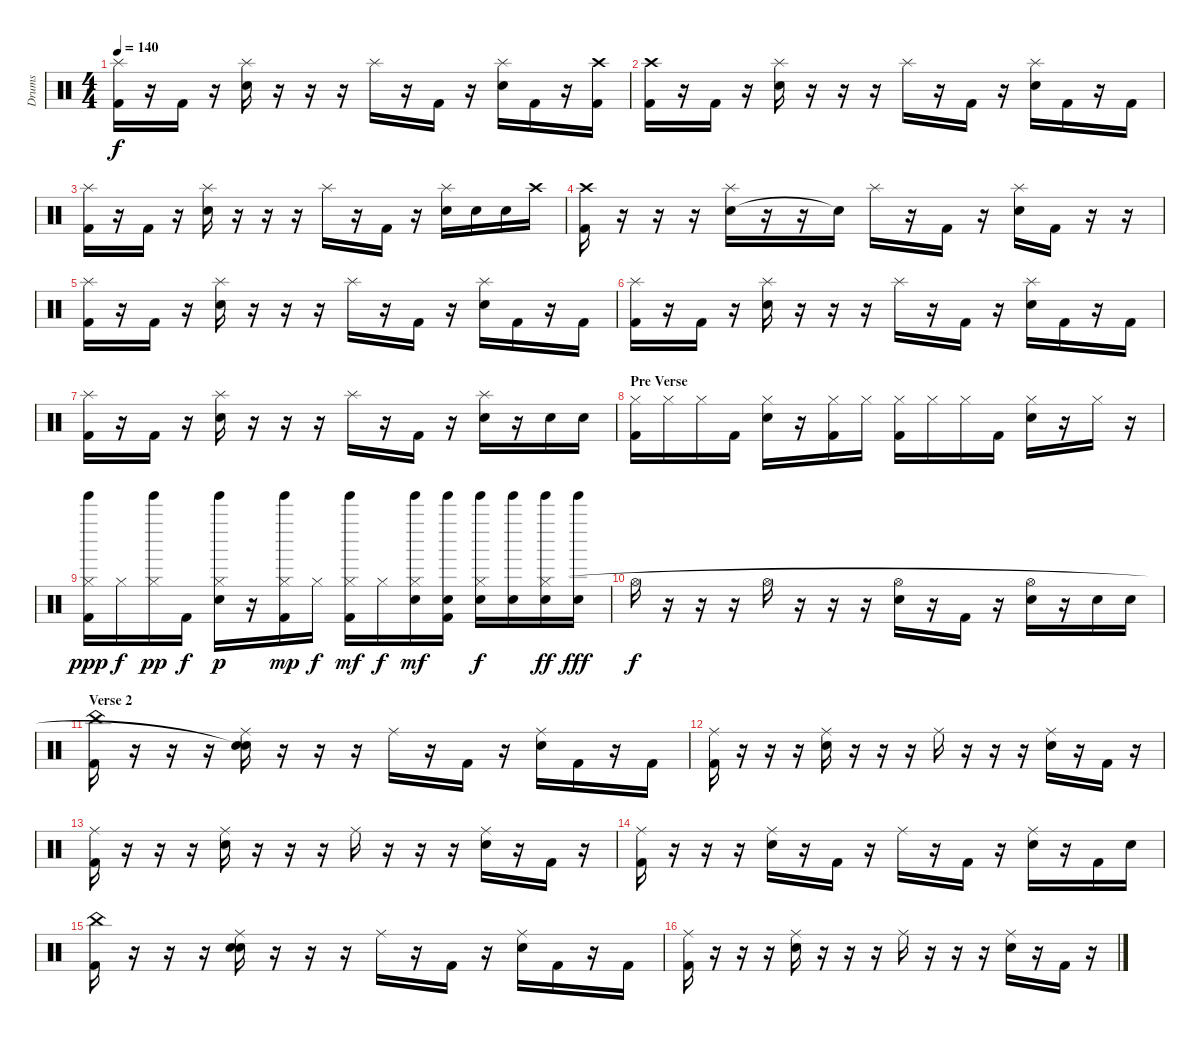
\track ("Drums" "Drums") {instrument percussion}
\staff {score}
\articulation defaults
\ts (4 4)
\tempo 140
\clef neutral
\ks c
("Kick (hit) 2" "Splash (hit)").16{dy f} r.16 "Kick (hit) 2".16 r.16 ("Snare (hit) 2" "Splash (hit)").16 r.16 r.16 r.16 "Splash (hit)".16 r.16 "Kick (hit) 2".16 r.16 ("Snare (hit) 2" "Splash (hit)").16 "Kick (hit) 2".16 r.16 ("Kick (hit) 2" "Crash high (hit)").16 |
("Kick (hit) 2" "Crash high (hit)").16 r.16 "Kick (hit) 2".16 r.16 ("Snare (hit) 2" "Splash (hit)").16 r.16 r.16 r.16 "Splash (hit)".16 r.16 "Kick (hit) 2".16 r.16 ("Snare (hit) 2" "Splash (hit)").16 "Kick (hit) 2".16 r.16 "Kick (hit) 2".16 |
("Kick (hit) 2" "Splash (hit)").16 r.16 "Kick (hit) 2".16 r.16 ("Snare (hit) 2" "Splash (hit)").16 r.16 r.16 r.16 "Splash (hit)".16 r.16 "Kick (hit) 2".16 r.16 ("Snare (hit) 2" "Splash (hit)").16 "Snare (hit) 2".16 "Snare (hit) 2".16 "Crash high (hit)".16 |
("Kick (hit) 2" "Crash high (hit)").16 r.16 r.16 r.16 ("Snare (hit) 2" "Splash (hit)").16 r.16 r.16 "Snare (hit)"{t}.16 "Splash (hit)".16 r.16 "Kick (hit) 2".16 r.16 ("Snare (hit) 2" "Splash (hit)").16 "Kick (hit) 2".16 r.16 r.16 |
("Kick (hit) 2" "Splash (hit)").16 r.16 "Kick (hit) 2".16 r.16 ("Snare (hit) 2" "Splash (hit)").16 r.16 r.16 r.16 "Splash (hit)".16 r.16 "Kick (hit) 2".16 r.16 ("Snare (hit) 2" "Splash (hit)").16 "Kick (hit) 2".16 r.16 "Kick (hit) 2".16 |
("Kick (hit) 2" "Splash (hit)").16 r.16 "Kick (hit) 2".16 r.16 ("Snare (hit) 2" "Splash (hit)").16 r.16 r.16 r.16 "Splash (hit)".16 r.16 "Kick (hit) 2".16 r.16 ("Snare (hit) 2" "Splash (hit)").16 "Kick (hit) 2".16 r.16 "Kick (hit) 2".16 |
("Kick (hit) 2" "Splash (hit)").16 r.16 "Kick (hit) 2".16 r.16 ("Snare (hit) 2" "Splash (hit)").16 r.16 r.16 r.16 "Splash (hit)".16 r.16 "Kick (hit) 2".16 r.16 ("Snare (hit) 2" "Splash (hit)").16 r.16 "Snare (hit) 2".16 "Snare (hit) 2".16 |
\section ("" "Pre Verse")
("Kick (hit) 2" "Hi-Hat (closed)").16{volume 16} "Hi-Hat (closed)".16 "Hi-Hat (closed)".16 "Kick (hit) 2".16 ("Snare (hit) 2" "Hi-Hat (closed)").16 r.16 ("Kick (hit) 2" "Hi-Hat (closed)").16 "Hi-Hat (closed)".16 ("Kick (hit) 2" "Hi-Hat (closed)").16 "Hi-Hat (closed)".16 "Hi-Hat (closed)".16 "Kick (hit) 2".16 ("Snare (hit) 2" "Hi-Hat (closed)").16 r.16 "Hi-Hat (closed)".16 r.16 |
("Kick (hit) 2" "Tinkle Bell (hit)" "Hi-Hat (closed)").16{dy ppp volume 16} "Hi-Hat (closed)".16{dy f} ("Tinkle Bell (hit)" "Hi-Hat (closed)").16{dy pp} "Kick (hit) 2".16{dy f} ("Snare (hit) 2" "Tinkle Bell (hit)" "Hi-Hat (closed)").16{dy p} r.16 ("Kick (hit) 2" "Tinkle Bell (hit)" "Hi-Hat (closed)").16{dy mp} "Hi-Hat (closed)".16{dy f} ("Kick (hit) 2" "Tinkle Bell (hit)" "Hi-Hat (closed)").16{dy mf} "Hi-Hat (closed)".16{dy f} ("Snare (hit) 2" "Tinkle Bell (hit)" "Hi-Hat (closed)").16{dy mf} ("Kick (hit) 2" "Snare (hit) 2" "Tinkle Bell (hit)").16 ("Snare (hit) 2" "Tinkle Bell (hit)" "Hi-Hat (closed)").16{dy f} ("Snare (hit) 2" "Tinkle Bell (hit)").16 ("Snare (hit) 2" "Tinkle Bell (hit)" "Hi-Hat (closed)").16{dy ff} ("Snare (hit) 2" "Tinkle Bell (hit)").16{dy fff} |
"Hi-Hat (open)".16{dy f volume 12} r.16 r.16 r.16 "Hi-Hat (open)".16 r.16 r.16 r.16 ("Snare (hit) 2" "Hi-Hat (open)").16 r.16 "Kick (hit) 2".16 r.16 ("Snare (hit) 2" "Hi-Hat (open)").16 r.16 "Snare (hit) 2".16 "Snare (hit) 2".16 |
\section ("" "Verse 2")
("Kick (hit) 2" "China (hit)").16 r.16 r.16 r.16 ("Snare (hit) 2" "Ride (middle)" "Snare (hit)"{t}).16 r.16 r.16 r.16 "Ride (middle)".16 r.16 "Kick (hit) 2".16 r.16 ("Snare (hit) 2" "Ride (middle)").16 "Kick (hit) 2".16 r.16 "Kick (hit) 2".16 |
("Kick (hit) 2" "Ride (middle)").16 r.16 r.16 r.16 ("Snare (hit) 2" "Ride (middle)").16 r.16 r.16 r.16 "Ride (middle)".16 r.16 r.16 r.16 ("Snare (hit) 2" "Ride (middle)").16 r.16 "Kick (hit) 2".16 r.16 |
("Kick (hit) 2" "Ride (middle)").16 r.16 r.16 r.16 ("Snare (hit) 2" "Ride (middle)").16 r.16 r.16 r.16 "Ride (middle)".16 r.16 r.16 r.16 ("Snare (hit) 2" "Ride (middle)").16 r.16 "Kick (hit) 2".16 r.16 |
("Kick (hit) 2" "Ride (middle)").16 r.16 r.16 r.16 ("Snare (hit) 2" "Ride (middle)").16 r.16 "Kick (hit) 2".16 r.16 "Ride (middle)".16 r.16 "Kick (hit) 2".16 r.16 ("Snare (hit) 2" "Ride (middle)").16 r.16 "Kick (hit) 2".16 "Snare (hit) 2".16 |
("Kick (hit) 2" "China (hit)").16 r.16 r.16 r.16 ("Snare (hit) 2" "Ride (middle)" "Snare (hit)").16 r.16 r.16 r.16 "Ride (middle)".16 r.16 "Kick (hit) 2".16 r.16 ("Snare (hit) 2" "Ride (middle)").16 "Kick (hit) 2".16 r.16 "Kick (hit) 2".16 |
("Kick (hit) 2" "Ride (middle)").16 r.16 r.16 r.16 ("Snare (hit) 2" "Ride (middle)").16 r.16 r.16 r.16 "Ride (middle)".16 r.16 r.16 r.16 ("Snare (hit) 2" "Ride (middle)").16 r.16 "Kick (hit) 2".16 r.16
